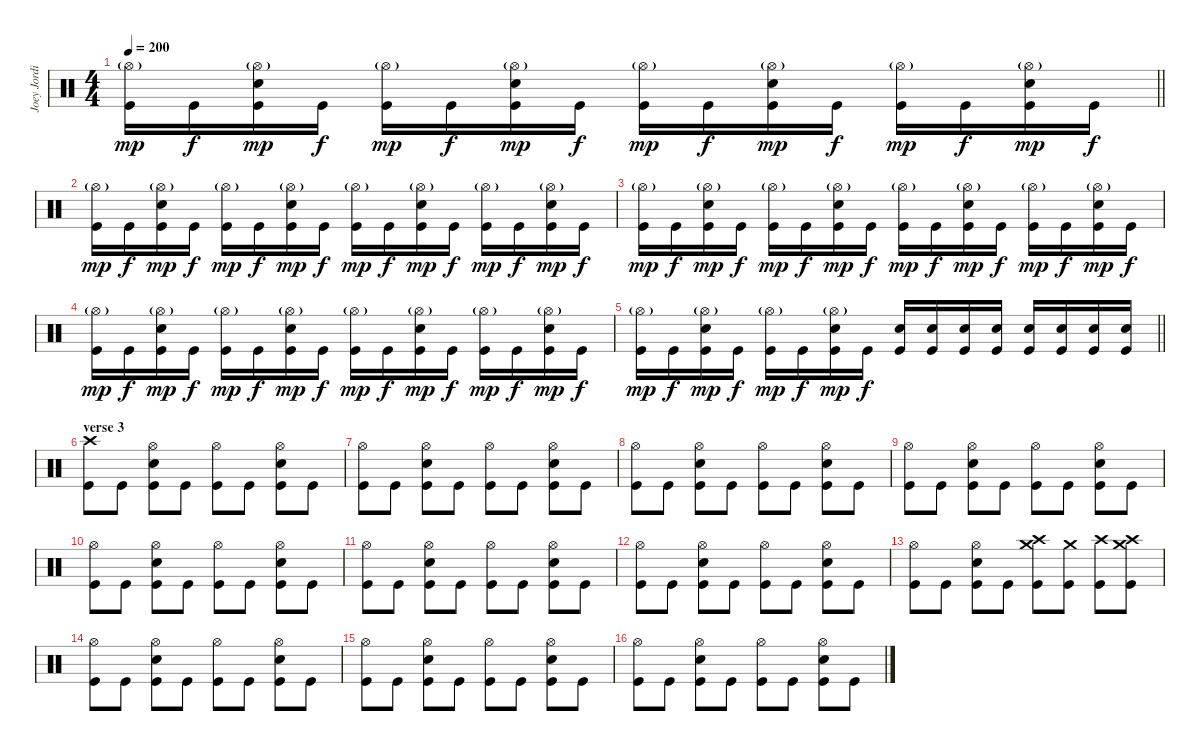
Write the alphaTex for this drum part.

\track ("Joey Jordison" "Joey Jordi") {instrument percussion}
\staff {score}
\articulation defaults
\ts (4 4)
\tempo 200
\clef neutral
\barLineRight lightlight
\ks c
("Hi-Hat (open)"{g} "Kick (hit)").16{dy mp} "Kick (hit)".16{dy f} ("Hi-Hat (open)"{g} "Electric Snare (hit)" "Kick (hit)").16{dy mp} "Kick (hit)".16{dy f} ("Hi-Hat (open)"{g} "Kick (hit)").16{dy mp} "Kick (hit)".16{dy f} ("Hi-Hat (open)"{g} "Electric Snare (hit)" "Kick (hit)").16{dy mp} "Kick (hit)".16{dy f} ("Hi-Hat (open)"{g} "Kick (hit)").16{dy mp} "Kick (hit)".16{dy f} ("Hi-Hat (open)"{g} "Electric Snare (hit)" "Kick (hit)").16{dy mp} "Kick (hit)".16{dy f} ("Hi-Hat (open)"{g} "Kick (hit)").16{dy mp} "Kick (hit)".16{dy f} ("Hi-Hat (open)"{g} "Electric Snare (hit)" "Kick (hit)").16{dy mp} "Kick (hit)".16{dy f} |
("Hi-Hat (open)"{g} "Kick (hit)").16{dy mp} "Kick (hit)".16{dy f} ("Hi-Hat (open)"{g} "Electric Snare (hit)" "Kick (hit)").16{dy mp} "Kick (hit)".16{dy f} ("Hi-Hat (open)"{g} "Kick (hit)").16{dy mp} "Kick (hit)".16{dy f} ("Hi-Hat (open)"{g} "Electric Snare (hit)" "Kick (hit)").16{dy mp} "Kick (hit)".16{dy f} ("Hi-Hat (open)"{g} "Kick (hit)").16{dy mp} "Kick (hit)".16{dy f} ("Hi-Hat (open)"{g} "Electric Snare (hit)" "Kick (hit)").16{dy mp} "Kick (hit)".16{dy f} ("Hi-Hat (open)"{g} "Kick (hit)").16{dy mp} "Kick (hit)".16{dy f} ("Hi-Hat (open)"{g} "Electric Snare (hit)" "Kick (hit)").16{dy mp} "Kick (hit)".16{dy f} |
("Hi-Hat (open)"{g} "Kick (hit)").16{dy mp} "Kick (hit)".16{dy f} ("Hi-Hat (open)"{g} "Electric Snare (hit)" "Kick (hit)").16{dy mp} "Kick (hit)".16{dy f} ("Hi-Hat (open)"{g} "Kick (hit)").16{dy mp} "Kick (hit)".16{dy f} ("Hi-Hat (open)"{g} "Electric Snare (hit)" "Kick (hit)").16{dy mp} "Kick (hit)".16{dy f} ("Hi-Hat (open)"{g} "Kick (hit)").16{dy mp} "Kick (hit)".16{dy f} ("Hi-Hat (open)"{g} "Electric Snare (hit)" "Kick (hit)").16{dy mp} "Kick (hit)".16{dy f} ("Hi-Hat (open)"{g} "Kick (hit)").16{dy mp} "Kick (hit)".16{dy f} ("Hi-Hat (open)"{g} "Electric Snare (hit)" "Kick (hit)").16{dy mp} "Kick (hit)".16{dy f} |
("Hi-Hat (open)"{g} "Kick (hit)").16{dy mp} "Kick (hit)".16{dy f} ("Hi-Hat (open)"{g} "Electric Snare (hit)" "Kick (hit)").16{dy mp} "Kick (hit)".16{dy f} ("Hi-Hat (open)"{g} "Kick (hit)").16{dy mp} "Kick (hit)".16{dy f} ("Hi-Hat (open)"{g} "Electric Snare (hit)" "Kick (hit)").16{dy mp} "Kick (hit)".16{dy f} ("Hi-Hat (open)"{g} "Kick (hit)").16{dy mp} "Kick (hit)".16{dy f} ("Hi-Hat (open)"{g} "Electric Snare (hit)" "Kick (hit)").16{dy mp} "Kick (hit)".16{dy f} ("Hi-Hat (open)"{g} "Kick (hit)").16{dy mp} "Kick (hit)".16{dy f} ("Hi-Hat (open)"{g} "Electric Snare (hit)" "Kick (hit)").16{dy mp} "Kick (hit)".16{dy f} |
\barLineRight lightlight
("Hi-Hat (open)"{g} "Kick (hit)").16{dy mp} "Kick (hit)".16{dy f} ("Hi-Hat (open)"{g} "Electric Snare (hit)" "Kick (hit)").16{dy mp} "Kick (hit)".16{dy f} ("Hi-Hat (open)"{g} "Kick (hit)").16{dy mp} "Kick (hit)".16{dy f} ("Hi-Hat (open)"{g} "Electric Snare (hit)" "Kick (hit)").16{dy mp} "Kick (hit)".16{dy f} ("Electric Snare (hit)" "Kick (hit)").16 ("Electric Snare (hit)" "Kick (hit)").16 ("Electric Snare (hit)" "Kick (hit)").16 ("Electric Snare (hit)" "Kick (hit)").16 ("Electric Snare (hit)" "Kick (hit)").16 ("Electric Snare (hit)" "Kick (hit)").16 ("Electric Snare (hit)" "Kick (hit)").16 ("Electric Snare (hit)" "Kick (hit)").16 |
\section ("" "verse 3")
("Crash high (hit)" "Kick (hit)").8 "Kick (hit)".8 ("Hi-Hat (open)" "Electric Snare (hit)" "Kick (hit)").8 "Kick (hit)".8 ("Hi-Hat (open)" "Kick (hit)").8 "Kick (hit)".8 ("Hi-Hat (open)" "Electric Snare (hit)" "Kick (hit)").8 "Kick (hit)".8 |
("Hi-Hat (open)" "Kick (hit)").8 "Kick (hit)".8 ("Hi-Hat (open)" "Electric Snare (hit)" "Kick (hit)").8 "Kick (hit)".8 ("Hi-Hat (open)" "Kick (hit)").8 "Kick (hit)".8 ("Hi-Hat (open)" "Electric Snare (hit)" "Kick (hit)").8 "Kick (hit)".8 |
("Hi-Hat (open)" "Kick (hit)").8 "Kick (hit)".8 ("Hi-Hat (open)" "Electric Snare (hit)" "Kick (hit)").8 "Kick (hit)".8 ("Hi-Hat (open)" "Kick (hit)").8 "Kick (hit)".8 ("Hi-Hat (open)" "Electric Snare (hit)" "Kick (hit)").8 "Kick (hit)".8 |
("Hi-Hat (open)" "Kick (hit)").8 "Kick (hit)".8 ("Hi-Hat (open)" "Electric Snare (hit)" "Kick (hit)").8 "Kick (hit)".8 ("Hi-Hat (open)" "Kick (hit)").8 "Kick (hit)".8 ("Hi-Hat (open)" "Electric Snare (hit)" "Kick (hit)").8 "Kick (hit)".8 |
("Hi-Hat (open)" "Kick (hit)").8 "Kick (hit)".8 ("Hi-Hat (open)" "Electric Snare (hit)" "Kick (hit)").8 "Kick (hit)".8 ("Hi-Hat (open)" "Kick (hit)").8 "Kick (hit)".8 ("Hi-Hat (open)" "Electric Snare (hit)" "Kick (hit)").8 "Kick (hit)".8 |
("Hi-Hat (open)" "Kick (hit)").8 "Kick (hit)".8 ("Hi-Hat (open)" "Electric Snare (hit)" "Kick (hit)").8 "Kick (hit)".8 ("Hi-Hat (open)" "Kick (hit)").8 "Kick (hit)".8 ("Hi-Hat (open)" "Electric Snare (hit)" "Kick (hit)").8 "Kick (hit)".8 |
("Hi-Hat (open)" "Kick (hit)").8 "Kick (hit)".8 ("Hi-Hat (open)" "Electric Snare (hit)" "Kick (hit)").8 "Kick (hit)".8 ("Hi-Hat (open)" "Kick (hit)").8 "Kick (hit)".8 ("Hi-Hat (open)" "Electric Snare (hit)" "Kick (hit)").8 "Kick (hit)".8 |
("Hi-Hat (open)" "Kick (hit)").8 "Kick (hit)".8 ("Hi-Hat (open)" "Electric Snare (hit)" "Kick (hit)").8 "Kick (hit)".8 ("Crash medium (hit)" "Crash high (hit)" "Kick (hit)").8 ("Crash medium (hit)" "Kick (hit)").8 ("Crash high (hit)" "Kick (hit)").8 ("Crash high (hit)" "Crash medium (hit)" "Kick (hit)").8 |
("Hi-Hat (open)" "Kick (hit)").8 "Kick (hit)".8 ("Hi-Hat (open)" "Electric Snare (hit)" "Kick (hit)").8 "Kick (hit)".8 ("Hi-Hat (open)" "Kick (hit)").8 "Kick (hit)".8 ("Hi-Hat (open)" "Electric Snare (hit)" "Kick (hit)").8 "Kick (hit)".8 |
("Hi-Hat (open)" "Kick (hit)").8 "Kick (hit)".8 ("Hi-Hat (open)" "Electric Snare (hit)" "Kick (hit)").8 "Kick (hit)".8 ("Hi-Hat (open)" "Kick (hit)").8 "Kick (hit)".8 ("Hi-Hat (open)" "Electric Snare (hit)" "Kick (hit)").8 "Kick (hit)".8 |
("Hi-Hat (open)" "Kick (hit)").8 "Kick (hit)".8 ("Hi-Hat (open)" "Electric Snare (hit)" "Kick (hit)").8 "Kick (hit)".8 ("Hi-Hat (open)" "Kick (hit)").8 "Kick (hit)".8 ("Hi-Hat (open)" "Electric Snare (hit)" "Kick (hit)").8 "Kick (hit)".8
